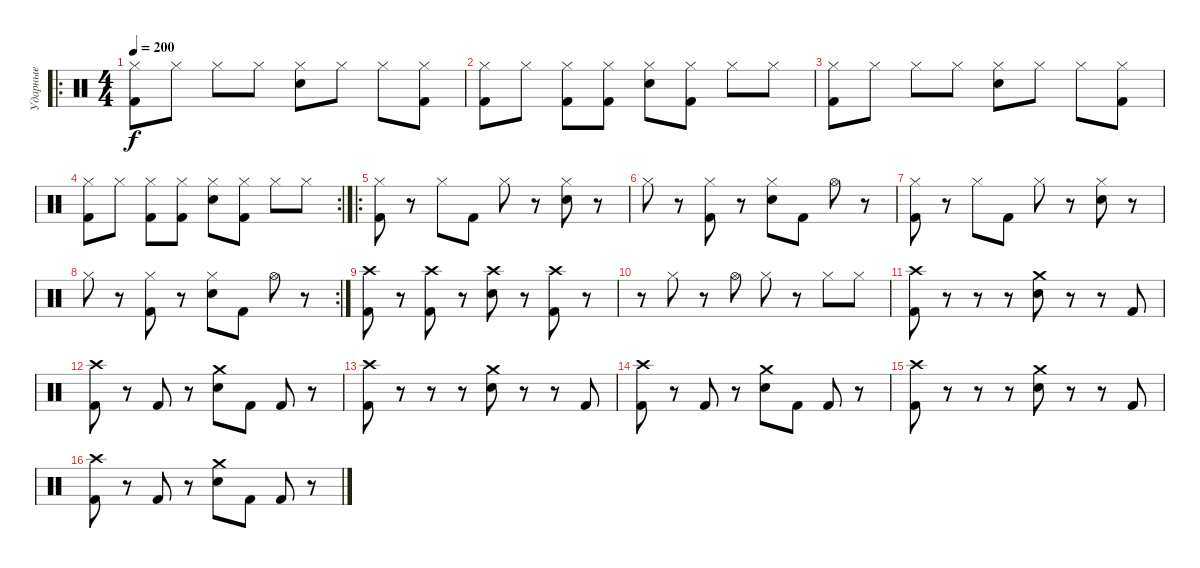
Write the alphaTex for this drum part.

\track ("Ударные" "Ударные") {instrument percussion}
\staff {score}
\articulation defaults
\ro
\ts (4 4)
\tempo 200
\clef neutral
\ks c
("Hi-Hat (closed)" "Kick (hit) 2").8{dy f} "Hi-Hat (closed)".8 "Hi-Hat (closed)".8 "Hi-Hat (closed)".8 ("Hi-Hat (closed)" "Electric Snare (hit)").8 "Hi-Hat (closed)".8 "Hi-Hat (closed)".8 ("Hi-Hat (closed)" "Kick (hit) 2").8 |
("Hi-Hat (closed)" "Kick (hit) 2").8 "Hi-Hat (closed)".8 ("Hi-Hat (closed)" "Kick (hit) 2").8 ("Hi-Hat (closed)" "Kick (hit) 2").8 ("Hi-Hat (closed)" "Electric Snare (hit)").8 ("Hi-Hat (closed)" "Kick (hit) 2").8 "Hi-Hat (closed)".8 "Hi-Hat (closed)".8 |
("Hi-Hat (closed)" "Kick (hit) 2").8 "Hi-Hat (closed)".8 "Hi-Hat (closed)".8 "Hi-Hat (closed)".8 ("Hi-Hat (closed)" "Electric Snare (hit)").8 "Hi-Hat (closed)".8 "Hi-Hat (closed)".8 ("Hi-Hat (closed)" "Kick (hit) 2").8 |
\rc 2
("Hi-Hat (closed)" "Kick (hit) 2").8 "Hi-Hat (closed)".8 ("Hi-Hat (closed)" "Kick (hit) 2").8 ("Hi-Hat (closed)" "Kick (hit) 2").8 ("Hi-Hat (closed)" "Electric Snare (hit)").8 ("Hi-Hat (closed)" "Kick (hit) 2").8 "Hi-Hat (closed)".8 "Hi-Hat (closed)".8 |
\ro
("Hi-Hat (closed)" "Kick (hit) 2").8 r.8 "Hi-Hat (closed)".8 "Kick (hit) 2".8 "Hi-Hat (closed)".8 r.8 ("Hi-Hat (closed)" "Electric Snare (hit)").8 r.8 |
"Hi-Hat (closed)".8 r.8 ("Hi-Hat (closed)" "Kick (hit) 2").8 r.8 ("Hi-Hat (closed)" "Electric Snare (hit)").8 "Kick (hit) 2".8 "Hi-Hat (open)".8 r.8 |
("Hi-Hat (closed)" "Kick (hit) 2").8 r.8 "Hi-Hat (closed)".8 "Kick (hit) 2".8 "Hi-Hat (closed)".8 r.8 ("Hi-Hat (closed)" "Electric Snare (hit)").8 r.8 |
\rc 2 "Hi-Hat (closed)".8
r.8 ("Hi-Hat (closed)" "Kick (hit) 2").8 r.8 ("Hi-Hat (closed)" "Electric Snare (hit)").8 "Kick (hit) 2".8 "Hi-Hat (open)".8 r.8 |
("Crash high (hit)" "Kick (hit) 2").8 r.8 ("Crash high (hit)" "Kick (hit) 2").8 r.8 ("Crash high (hit)" "Electric Snare (hit)").8 r.8 ("Crash high (hit)" "Kick (hit) 2").8 r.8 |
r.8 "Hi-Hat (closed)".8 r.8 "Hi-Hat (open)".8 "Hi-Hat (closed)".8 r.8 "Hi-Hat (closed)".8 "Hi-Hat (closed)".8 |
("Crash high (hit)" "Kick (hit) 2").8 r.8 r.8 r.8 ("Crash medium (hit)" "Electric Snare (hit)").8 r.8 r.8 "Kick (hit) 2".8 |
("Crash high (hit)" "Kick (hit) 2").8 r.8 "Kick (hit) 2".8 r.8 ("Crash medium (hit)" "Electric Snare (hit)").8 "Kick (hit) 2".8 "Kick (hit) 2".8 r.8 |
("Crash high (hit)" "Kick (hit) 2").8 r.8 r.8 r.8 ("Crash medium (hit)" "Electric Snare (hit)").8 r.8 r.8 "Kick (hit) 2".8 |
("Crash high (hit)" "Kick (hit) 2").8 r.8 "Kick (hit) 2".8 r.8 ("Crash medium (hit)" "Electric Snare (hit)").8 "Kick (hit) 2".8 "Kick (hit) 2".8 r.8 |
("Crash high (hit)" "Kick (hit) 2").8 r.8 r.8 r.8 ("Crash medium (hit)" "Electric Snare (hit)").8 r.8 r.8 "Kick (hit) 2".8 |
("Crash high (hit)" "Kick (hit) 2").8 r.8 "Kick (hit) 2".8 r.8 ("Crash medium (hit)" "Electric Snare (hit)").8 "Kick (hit) 2".8 "Kick (hit) 2".8 r.8
